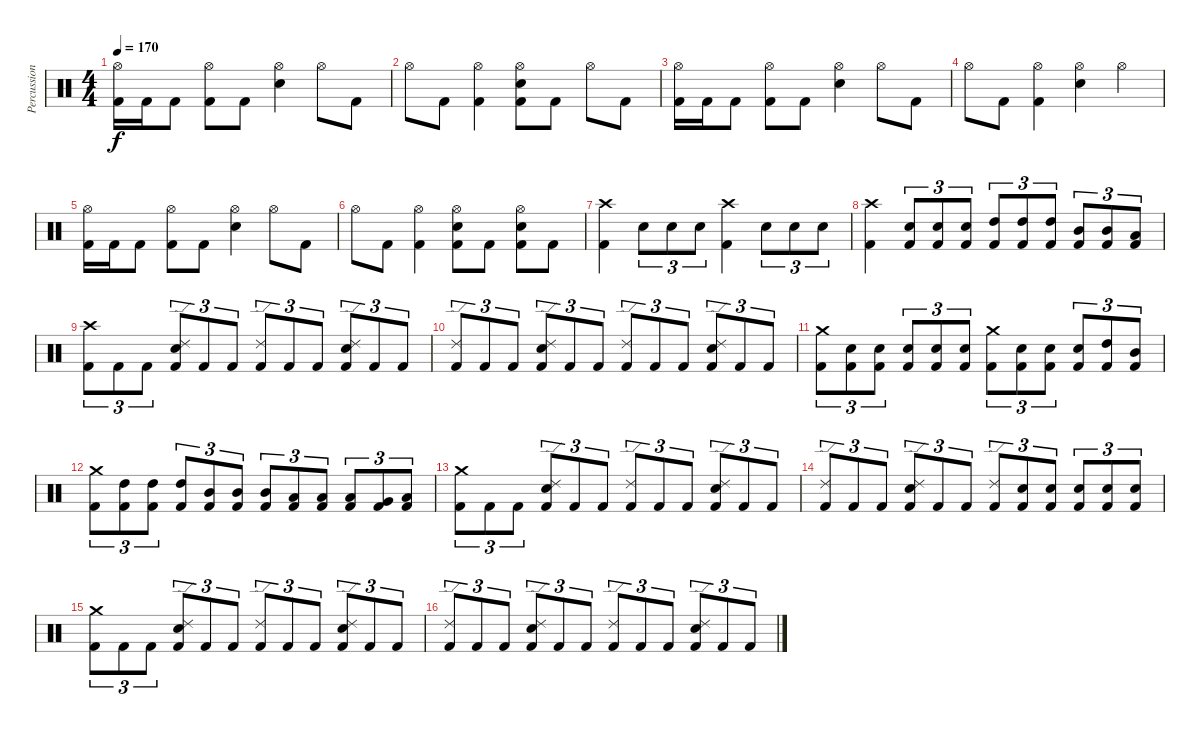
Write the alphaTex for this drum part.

\track ("Percussioni" "Percussion") {instrument percussion}
\staff {score}
\articulation defaults
\ts (4 4)
\tempo 170
\clef neutral
\ks c
("Hi-Hat (open)" "Kick (hit) 2").16{dy f} "Kick (hit) 2".16 "Kick (hit) 2".8 ("Hi-Hat (open)" "Kick (hit) 2").8 "Kick (hit) 2".8 ("Hi-Hat (open)" "Snare (hit) 2").4 "Hi-Hat (open)".8 "Kick (hit) 2".8 |
"Hi-Hat (open)".8 "Kick (hit) 2".8 ("Hi-Hat (open)" "Kick (hit) 2").4 ("Hi-Hat (open)" "Snare (hit) 2" "Kick (hit) 2").8 "Kick (hit) 2".8 "Hi-Hat (open)".8 "Kick (hit) 2".8 |
("Hi-Hat (open)" "Kick (hit) 2").16 "Kick (hit) 2".16 "Kick (hit) 2".8 ("Hi-Hat (open)" "Kick (hit) 2").8 "Kick (hit) 2".8 ("Hi-Hat (open)" "Snare (hit) 2").4 "Hi-Hat (open)".8 "Kick (hit) 2".8 |
"Hi-Hat (open)".8 "Kick (hit) 2".8 ("Hi-Hat (open)" "Kick (hit) 2").4 ("Hi-Hat (open)" "Snare (hit) 2").4 "Hi-Hat (open)".4 |
("Hi-Hat (open)" "Kick (hit) 2").16 "Kick (hit) 2".16 "Kick (hit) 2".8 ("Hi-Hat (open)" "Kick (hit) 2").8 "Kick (hit) 2".8 ("Hi-Hat (open)" "Snare (hit) 2").4 "Hi-Hat (open)".8 "Kick (hit) 2".8 |
"Hi-Hat (open)".8 "Kick (hit) 2".8 ("Hi-Hat (open)" "Kick (hit) 2").4 ("Hi-Hat (open)" "Snare (hit) 2" "Kick (hit) 2").8 "Kick (hit) 2".8 ("Hi-Hat (open)" "Snare (hit) 2" "Kick (hit) 2").8 "Kick (hit) 2".8 |
("Crash high (hit)" "Kick (hit) 2").4 "Snare (hit) 2".8{tu (3 2)} "Snare (hit) 2".8{tu (3 2)} "Snare (hit) 2".8{tu (3 2)} ("Crash high (hit)" "Kick (hit) 2").4 "Snare (hit) 2".8{tu (3 2)} "Snare (hit) 2".8{tu (3 2)} "Snare (hit) 2".8{tu (3 2)} |
("Crash high (hit)" "Kick (hit) 2").4 ("Snare (hit) 2" "Kick (hit) 2").8{tu (3 2)} ("Snare (hit) 2" "Kick (hit) 2").8{tu (3 2)} ("Snare (hit) 2" "Kick (hit) 2").8{tu (3 2)} ("High Tom (hit)" "Kick (hit) 2").8{tu (3 2)} ("High Tom (hit)" "Kick (hit) 2").8{tu (3 2)} ("High Tom (hit)" "Kick (hit) 2").8{tu (3 2)} ("Mid Tom (hit)" "Kick (hit) 2").8{tu (3 2)} ("Mid Tom (hit)" "Kick (hit) 2").8{tu (3 2)} ("Low Tom (hit)" "Kick (hit) 2").8{tu (3 2)} |
("Crash high (hit)" "Kick (hit) 2").8{tu (3 2)} "Kick (hit) 2".8{tu (3 2)} "Kick (hit) 2".8{tu (3 2)} ("Ride (edge) 2" "Snare (hit) 2" "Kick (hit) 2").8{tu (3 2)} "Kick (hit) 2".8{tu (3 2)} "Kick (hit) 2".8{tu (3 2)} ("Ride (edge) 2" "Kick (hit) 2").8{tu (3 2)} "Kick (hit) 2".8{tu (3 2)} "Kick (hit) 2".8{tu (3 2)} ("Ride (edge) 2" "Snare (hit) 2" "Kick (hit) 2").8{tu (3 2)} "Kick (hit) 2".8{tu (3 2)} "Kick (hit) 2".8{tu (3 2)} |
("Ride (edge) 2" "Kick (hit) 2").8{tu (3 2)} "Kick (hit) 2".8{tu (3 2)} "Kick (hit) 2".8{tu (3 2)} ("Ride (edge) 2" "Snare (hit) 2" "Kick (hit) 2").8{tu (3 2)} "Kick (hit) 2".8{tu (3 2)} "Kick (hit) 2".8{tu (3 2)} ("Ride (edge) 2" "Kick (hit) 2").8{tu (3 2)} "Kick (hit) 2".8{tu (3 2)} "Kick (hit) 2".8{tu (3 2)} ("Ride (edge) 2" "Snare (hit) 2" "Kick (hit) 2").8{tu (3 2)} "Kick (hit) 2".8{tu (3 2)} "Kick (hit) 2".8{tu (3 2)} |
("Crash medium (hit)" "Kick (hit) 2").8{tu (3 2)} ("Snare (hit) 2" "Kick (hit) 2").8{tu (3 2)} ("Snare (hit) 2" "Kick (hit) 2").8{tu (3 2)} ("Snare (hit) 2" "Kick (hit) 2").8{tu (3 2)} ("Snare (hit) 2" "Kick (hit) 2").8{tu (3 2)} ("Snare (hit) 2" "Kick (hit) 2").8{tu (3 2)} ("Crash medium (hit)" "Kick (hit) 2").8{tu (3 2)} ("Snare (hit) 2" "Kick (hit) 2").8{tu (3 2)} ("Snare (hit) 2" "Kick (hit) 2").8{tu (3 2)} ("Snare (hit) 2" "Kick (hit) 2").8{tu (3 2)} ("High Tom (hit)" "Kick (hit) 2").8{tu (3 2)} ("Mid Tom (hit)" "Kick (hit) 2").8{tu (3 2)} |
("Crash medium (hit)" "Kick (hit) 2").8{tu (3 2)} ("High Tom (hit)" "Kick (hit) 2").8{tu (3 2)} ("High Tom (hit)" "Kick (hit) 2").8{tu (3 2)} ("High Tom (hit)" "Kick (hit) 2").8{tu (3 2)} ("Mid Tom (hit)" "Kick (hit) 2").8{tu (3 2)} ("Mid Tom (hit)" "Kick (hit) 2").8{tu (3 2)} ("Mid Tom (hit)" "Kick (hit) 2").8{tu (3 2)} ("Low Tom (hit)" "Kick (hit) 2").8{tu (3 2)} ("Low Tom (hit)" "Kick (hit) 2").8{tu (3 2)} ("Low Tom (hit)" "Kick (hit) 2").8{tu (3 2)} ("Very Low Tom (hit)" "Kick (hit) 2").8{tu (3 2)} ("Low Floor Tom (hit)" "Kick (hit) 2").8{tu (3 2)} |
("Crash medium (hit)" "Kick (hit) 2").8{tu (3 2)} "Kick (hit) 2".8{tu (3 2)} "Kick (hit) 2".8{tu (3 2)} ("Ride (edge) 2" "Snare (hit) 2" "Kick (hit) 2").8{tu (3 2)} "Kick (hit) 2".8{tu (3 2)} "Kick (hit) 2".8{tu (3 2)} ("Ride (edge) 2" "Kick (hit) 2").8{tu (3 2)} "Kick (hit) 2".8{tu (3 2)} "Kick (hit) 2".8{tu (3 2)} ("Ride (edge) 2" "Snare (hit) 2" "Kick (hit) 2").8{tu (3 2)} "Kick (hit) 2".8{tu (3 2)} "Kick (hit) 2".8{tu (3 2)} |
("Ride (edge) 2" "Kick (hit) 2").8{tu (3 2)} "Kick (hit) 2".8{tu (3 2)} "Kick (hit) 2".8{tu (3 2)} ("Ride (edge) 2" "Snare (hit) 2" "Kick (hit) 2").8{tu (3 2)} "Kick (hit) 2".8{tu (3 2)} "Kick (hit) 2".8{tu (3 2)} ("Ride (edge) 2" "Kick (hit) 2").8{tu (3 2)} ("Snare (hit) 2" "Kick (hit) 2").8{tu (3 2)} ("Snare (hit) 2" "Kick (hit) 2").8{tu (3 2)} ("Snare (hit) 2" "Kick (hit) 2").8{tu (3 2)} ("Snare (hit) 2" "Kick (hit) 2").8{tu (3 2)} ("Snare (hit) 2" "Kick (hit) 2").8{tu (3 2)} |
("Crash medium (hit)" "Kick (hit) 2").8{tu (3 2)} "Kick (hit) 2".8{tu (3 2)} "Kick (hit) 2".8{tu (3 2)} ("Ride (edge) 2" "Snare (hit) 2" "Kick (hit) 2").8{tu (3 2)} "Kick (hit) 2".8{tu (3 2)} "Kick (hit) 2".8{tu (3 2)} ("Ride (edge) 2" "Kick (hit) 2").8{tu (3 2)} "Kick (hit) 2".8{tu (3 2)} "Kick (hit) 2".8{tu (3 2)} ("Ride (edge) 2" "Snare (hit) 2" "Kick (hit) 2").8{tu (3 2)} "Kick (hit) 2".8{tu (3 2)} "Kick (hit) 2".8{tu (3 2)} |
("Ride (edge) 2" "Kick (hit) 2").8{tu (3 2)} "Kick (hit) 2".8{tu (3 2)} "Kick (hit) 2".8{tu (3 2)} ("Ride (edge) 2" "Snare (hit) 2" "Kick (hit) 2").8{tu (3 2)} "Kick (hit) 2".8{tu (3 2)} "Kick (hit) 2".8{tu (3 2)} ("Ride (edge) 2" "Kick (hit) 2").8{tu (3 2)} "Kick (hit) 2".8{tu (3 2)} "Kick (hit) 2".8{tu (3 2)} ("Ride (edge) 2" "Snare (hit) 2" "Kick (hit) 2").8{tu (3 2)} "Kick (hit) 2".8{tu (3 2)} "Kick (hit) 2".8{tu (3 2)}
